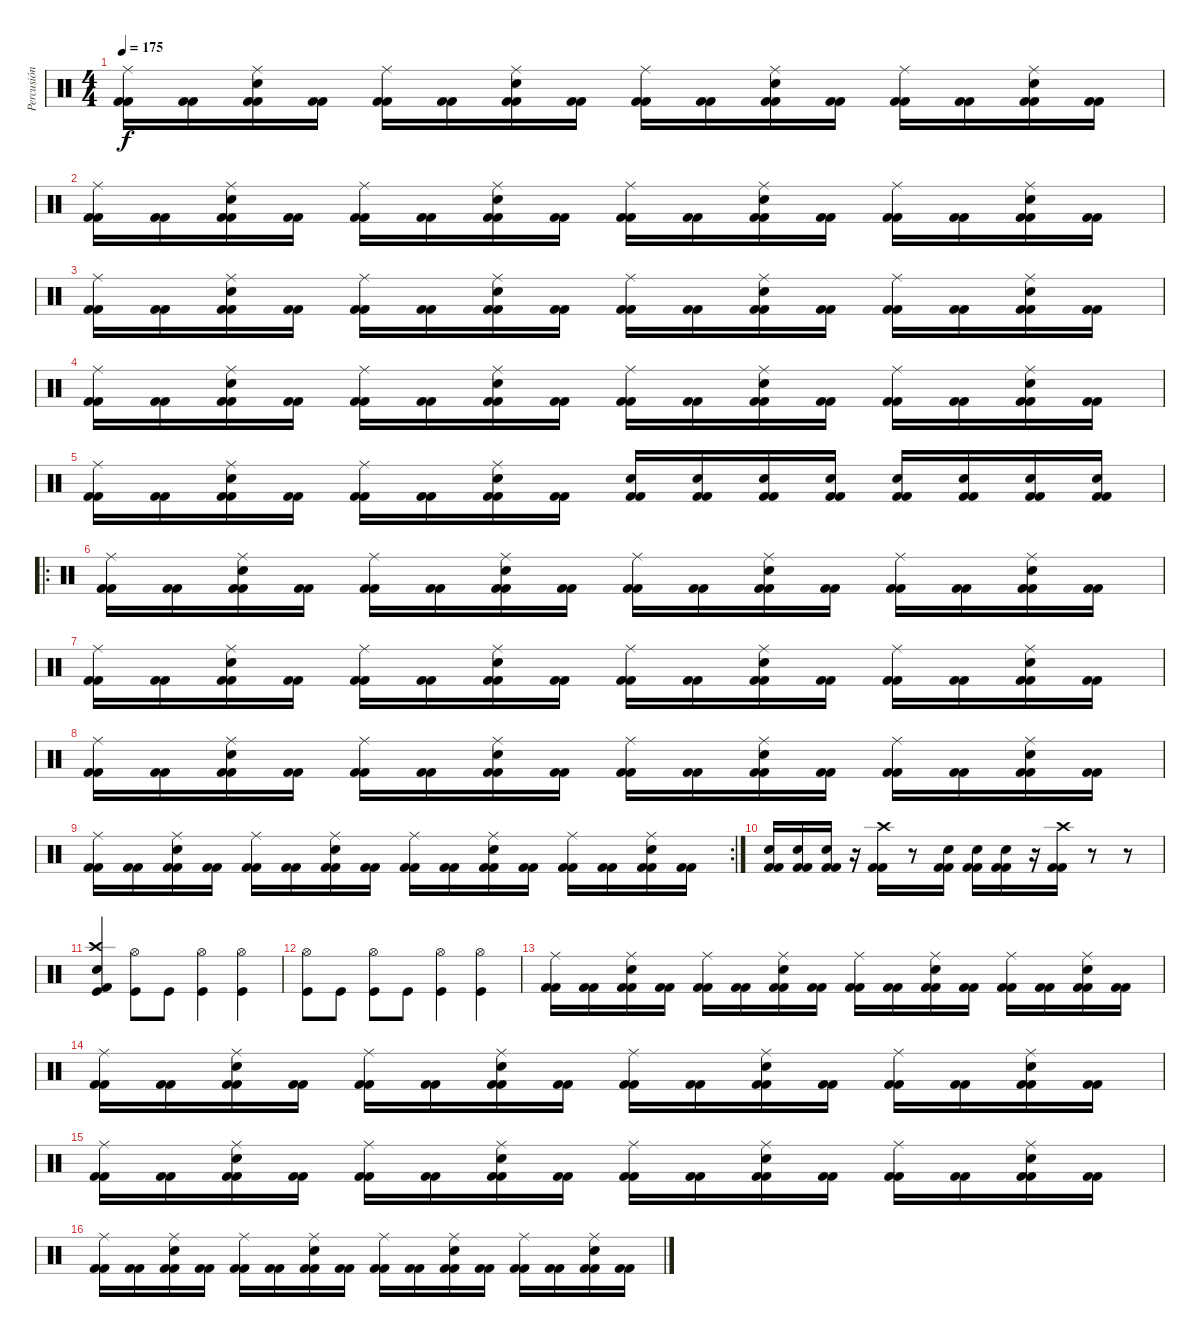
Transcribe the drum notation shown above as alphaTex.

\track ("Percusión" "Percusión") {instrument percussion}
\staff {score}
\articulation defaults
\ts (4 4)
\tempo 175
\clef neutral
\ks c
("Kick (hit) 2" "Kick (hit) 2" "Ride (middle)").16{dy f} ("Kick (hit) 2" "Kick (hit) 2").16 ("Kick (hit) 2" "Kick (hit) 2" "Electric Snare (hit)" "Ride (middle)").16 ("Kick (hit) 2" "Kick (hit) 2").16 ("Kick (hit) 2" "Kick (hit) 2" "Ride (middle)").16 ("Kick (hit) 2" "Kick (hit) 2").16 ("Kick (hit) 2" "Kick (hit) 2" "Electric Snare (hit)" "Ride (middle)").16 ("Kick (hit) 2" "Kick (hit) 2").16 ("Kick (hit) 2" "Kick (hit) 2" "Ride (middle)").16 ("Kick (hit) 2" "Kick (hit) 2").16 ("Kick (hit) 2" "Kick (hit) 2" "Electric Snare (hit)" "Ride (middle)").16 ("Kick (hit) 2" "Kick (hit) 2").16 ("Kick (hit) 2" "Kick (hit) 2" "Ride (middle)").16 ("Kick (hit) 2" "Kick (hit) 2").16 ("Kick (hit) 2" "Kick (hit) 2" "Electric Snare (hit)" "Ride (middle)").16 ("Kick (hit) 2" "Kick (hit) 2").16 |
("Kick (hit) 2" "Kick (hit) 2" "Ride (middle)").16 ("Kick (hit) 2" "Kick (hit) 2").16 ("Kick (hit) 2" "Kick (hit) 2" "Electric Snare (hit)" "Ride (middle)").16 ("Kick (hit) 2" "Kick (hit) 2").16 ("Kick (hit) 2" "Kick (hit) 2" "Ride (middle)").16 ("Kick (hit) 2" "Kick (hit) 2").16 ("Kick (hit) 2" "Kick (hit) 2" "Electric Snare (hit)" "Ride (middle)").16 ("Kick (hit) 2" "Kick (hit) 2").16 ("Kick (hit) 2" "Kick (hit) 2" "Ride (middle)").16 ("Kick (hit) 2" "Kick (hit) 2").16 ("Kick (hit) 2" "Kick (hit) 2" "Electric Snare (hit)" "Ride (middle)").16 ("Kick (hit) 2" "Kick (hit) 2").16 ("Kick (hit) 2" "Kick (hit) 2" "Ride (middle)").16 ("Kick (hit) 2" "Kick (hit) 2").16 ("Kick (hit) 2" "Kick (hit) 2" "Electric Snare (hit)" "Ride (middle)").16 ("Kick (hit) 2" "Kick (hit) 2").16 |
("Kick (hit) 2" "Kick (hit) 2" "Ride (middle)").16 ("Kick (hit) 2" "Kick (hit) 2").16 ("Kick (hit) 2" "Kick (hit) 2" "Electric Snare (hit)" "Ride (middle)").16 ("Kick (hit) 2" "Kick (hit) 2").16 ("Kick (hit) 2" "Kick (hit) 2" "Ride (middle)").16 ("Kick (hit) 2" "Kick (hit) 2").16 ("Kick (hit) 2" "Kick (hit) 2" "Electric Snare (hit)" "Ride (middle)").16 ("Kick (hit) 2" "Kick (hit) 2").16 ("Kick (hit) 2" "Kick (hit) 2" "Ride (middle)").16 ("Kick (hit) 2" "Kick (hit) 2").16 ("Kick (hit) 2" "Kick (hit) 2" "Electric Snare (hit)" "Ride (middle)").16 ("Kick (hit) 2" "Kick (hit) 2").16 ("Kick (hit) 2" "Kick (hit) 2" "Ride (middle)").16 ("Kick (hit) 2" "Kick (hit) 2").16 ("Kick (hit) 2" "Kick (hit) 2" "Electric Snare (hit)" "Ride (middle)").16 ("Kick (hit) 2" "Kick (hit) 2").16 |
("Kick (hit) 2" "Kick (hit) 2" "Ride (middle)").16 ("Kick (hit) 2" "Kick (hit) 2").16 ("Kick (hit) 2" "Kick (hit) 2" "Electric Snare (hit)" "Ride (middle)").16 ("Kick (hit) 2" "Kick (hit) 2").16 ("Kick (hit) 2" "Kick (hit) 2" "Ride (middle)").16 ("Kick (hit) 2" "Kick (hit) 2").16 ("Kick (hit) 2" "Kick (hit) 2" "Electric Snare (hit)" "Ride (middle)").16 ("Kick (hit) 2" "Kick (hit) 2").16 ("Kick (hit) 2" "Kick (hit) 2" "Ride (middle)").16 ("Kick (hit) 2" "Kick (hit) 2").16 ("Kick (hit) 2" "Kick (hit) 2" "Electric Snare (hit)" "Ride (middle)").16 ("Kick (hit) 2" "Kick (hit) 2").16 ("Kick (hit) 2" "Kick (hit) 2" "Ride (middle)").16 ("Kick (hit) 2" "Kick (hit) 2").16 ("Kick (hit) 2" "Kick (hit) 2" "Electric Snare (hit)" "Ride (middle)").16 ("Kick (hit) 2" "Kick (hit) 2").16 |
("Kick (hit) 2" "Kick (hit) 2" "Ride (middle)").16 ("Kick (hit) 2" "Kick (hit) 2").16 ("Kick (hit) 2" "Kick (hit) 2" "Electric Snare (hit)" "Ride (middle)").16 ("Kick (hit) 2" "Kick (hit) 2").16 ("Kick (hit) 2" "Kick (hit) 2" "Ride (middle)").16 ("Kick (hit) 2" "Kick (hit) 2").16 ("Kick (hit) 2" "Kick (hit) 2" "Electric Snare (hit)" "Ride (middle)").16 ("Kick (hit) 2" "Kick (hit) 2").16 ("Kick (hit) 2" "Kick (hit) 2" "Electric Snare (hit)").16 ("Kick (hit) 2" "Kick (hit) 2" "Electric Snare (hit)").16 ("Kick (hit) 2" "Kick (hit) 2" "Electric Snare (hit)").16 ("Kick (hit) 2" "Kick (hit) 2" "Electric Snare (hit)").16 ("Kick (hit) 2" "Kick (hit) 2" "Electric Snare (hit)").16 ("Kick (hit) 2" "Kick (hit) 2" "Electric Snare (hit)").16 ("Kick (hit) 2" "Kick (hit) 2" "Electric Snare (hit)").16 ("Kick (hit) 2" "Kick (hit) 2" "Electric Snare (hit)").16 |
\ro
("Kick (hit) 2" "Kick (hit) 2" "Ride (middle)").16 ("Kick (hit) 2" "Kick (hit) 2").16 ("Kick (hit) 2" "Kick (hit) 2" "Electric Snare (hit)" "Ride (middle)").16 ("Kick (hit) 2" "Kick (hit) 2").16 ("Kick (hit) 2" "Kick (hit) 2" "Ride (middle)").16 ("Kick (hit) 2" "Kick (hit) 2").16 ("Kick (hit) 2" "Kick (hit) 2" "Electric Snare (hit)" "Ride (middle)").16 ("Kick (hit) 2" "Kick (hit) 2").16 ("Kick (hit) 2" "Kick (hit) 2" "Ride (middle)").16 ("Kick (hit) 2" "Kick (hit) 2").16 ("Kick (hit) 2" "Kick (hit) 2" "Electric Snare (hit)" "Ride (middle)").16 ("Kick (hit) 2" "Kick (hit) 2").16 ("Kick (hit) 2" "Kick (hit) 2" "Ride (middle)").16 ("Kick (hit) 2" "Kick (hit) 2").16 ("Kick (hit) 2" "Kick (hit) 2" "Electric Snare (hit)" "Ride (middle)").16 ("Kick (hit) 2" "Kick (hit) 2").16 |
("Kick (hit) 2" "Kick (hit) 2" "Ride (middle)").16 ("Kick (hit) 2" "Kick (hit) 2").16 ("Kick (hit) 2" "Kick (hit) 2" "Electric Snare (hit)" "Ride (middle)").16 ("Kick (hit) 2" "Kick (hit) 2").16 ("Kick (hit) 2" "Kick (hit) 2" "Ride (middle)").16 ("Kick (hit) 2" "Kick (hit) 2").16 ("Kick (hit) 2" "Kick (hit) 2" "Electric Snare (hit)" "Ride (middle)").16 ("Kick (hit) 2" "Kick (hit) 2").16 ("Kick (hit) 2" "Kick (hit) 2" "Ride (middle)").16 ("Kick (hit) 2" "Kick (hit) 2").16 ("Kick (hit) 2" "Kick (hit) 2" "Electric Snare (hit)" "Ride (middle)").16 ("Kick (hit) 2" "Kick (hit) 2").16 ("Kick (hit) 2" "Kick (hit) 2" "Ride (middle)").16 ("Kick (hit) 2" "Kick (hit) 2").16 ("Kick (hit) 2" "Kick (hit) 2" "Electric Snare (hit)" "Ride (middle)").16 ("Kick (hit) 2" "Kick (hit) 2").16 |
("Kick (hit) 2" "Kick (hit) 2" "Ride (middle)").16 ("Kick (hit) 2" "Kick (hit) 2").16 ("Kick (hit) 2" "Kick (hit) 2" "Electric Snare (hit)" "Ride (middle)").16 ("Kick (hit) 2" "Kick (hit) 2").16 ("Kick (hit) 2" "Kick (hit) 2" "Ride (middle)").16 ("Kick (hit) 2" "Kick (hit) 2").16 ("Kick (hit) 2" "Kick (hit) 2" "Electric Snare (hit)" "Ride (middle)").16 ("Kick (hit) 2" "Kick (hit) 2").16 ("Kick (hit) 2" "Kick (hit) 2" "Ride (middle)").16 ("Kick (hit) 2" "Kick (hit) 2").16 ("Kick (hit) 2" "Kick (hit) 2" "Electric Snare (hit)" "Ride (middle)").16 ("Kick (hit) 2" "Kick (hit) 2").16 ("Kick (hit) 2" "Kick (hit) 2" "Ride (middle)").16 ("Kick (hit) 2" "Kick (hit) 2").16 ("Kick (hit) 2" "Kick (hit) 2" "Electric Snare (hit)" "Ride (middle)").16 ("Kick (hit) 2" "Kick (hit) 2").16 |
\rc 2
("Kick (hit) 2" "Kick (hit) 2" "Ride (middle)").16 ("Kick (hit) 2" "Kick (hit) 2").16 ("Kick (hit) 2" "Kick (hit) 2" "Electric Snare (hit)" "Ride (middle)").16 ("Kick (hit) 2" "Kick (hit) 2").16 ("Kick (hit) 2" "Kick (hit) 2" "Ride (middle)").16 ("Kick (hit) 2" "Kick (hit) 2").16 ("Kick (hit) 2" "Kick (hit) 2" "Electric Snare (hit)" "Ride (middle)").16 ("Kick (hit) 2" "Kick (hit) 2").16 ("Kick (hit) 2" "Kick (hit) 2" "Ride (middle)").16 ("Kick (hit) 2" "Kick (hit) 2").16 ("Kick (hit) 2" "Kick (hit) 2" "Electric Snare (hit)" "Ride (middle)").16 ("Kick (hit) 2" "Kick (hit) 2").16 ("Kick (hit) 2" "Kick (hit) 2" "Ride (middle)").16 ("Kick (hit) 2" "Kick (hit) 2").16 ("Kick (hit) 2" "Kick (hit) 2" "Electric Snare (hit)" "Ride (middle)").16 ("Kick (hit) 2" "Kick (hit) 2").16 |
("Kick (hit) 2" "Kick (hit) 2" "Electric Snare (hit)").16 ("Kick (hit) 2" "Kick (hit) 2" "Electric Snare (hit)").16 ("Kick (hit) 2" "Kick (hit) 2" "Electric Snare (hit)").16 r.16 ("Kick (hit) 2" "Kick (hit) 2" "Crash high (hit)").16 r.8 ("Kick (hit) 2" "Kick (hit) 2" "Electric Snare (hit)").16 ("Kick (hit) 2" "Kick (hit) 2" "Electric Snare (hit)").16 ("Kick (hit) 2" "Kick (hit) 2" "Electric Snare (hit)").16 r.16 ("Kick (hit) 2" "Kick (hit) 2" "Crash high (hit)").16 r.8 r.8 |
("Kick (hit) 2" "Kick (hit)" "Electric Snare (hit)" "Crash high (hit)").4 ("Hi-Hat (open)" "Kick (hit)").8 "Kick (hit)".8 ("Hi-Hat (open)" "Kick (hit)").4 ("Hi-Hat (open)" "Kick (hit)").4 |
("Hi-Hat (open)" "Kick (hit)").8 "Kick (hit)".8 ("Hi-Hat (open)" "Kick (hit)").8 "Kick (hit)".8 ("Hi-Hat (open)" "Kick (hit)").4 ("Hi-Hat (open)" "Kick (hit)").4 |
("Kick (hit) 2" "Kick (hit) 2" "Ride (middle)").16 ("Kick (hit) 2" "Kick (hit) 2").16 ("Kick (hit) 2" "Kick (hit) 2" "Electric Snare (hit)" "Ride (middle)").16 ("Kick (hit) 2" "Kick (hit) 2").16 ("Kick (hit) 2" "Kick (hit) 2" "Ride (middle)").16 ("Kick (hit) 2" "Kick (hit) 2").16 ("Kick (hit) 2" "Kick (hit) 2" "Electric Snare (hit)" "Ride (middle)").16 ("Kick (hit) 2" "Kick (hit) 2").16 ("Kick (hit) 2" "Kick (hit) 2" "Ride (middle)").16 ("Kick (hit) 2" "Kick (hit) 2").16 ("Kick (hit) 2" "Kick (hit) 2" "Electric Snare (hit)" "Ride (middle)").16 ("Kick (hit) 2" "Kick (hit) 2").16 ("Kick (hit) 2" "Kick (hit) 2" "Ride (middle)").16 ("Kick (hit) 2" "Kick (hit) 2").16 ("Kick (hit) 2" "Kick (hit) 2" "Electric Snare (hit)" "Ride (middle)").16 ("Kick (hit) 2" "Kick (hit) 2").16 |
("Kick (hit) 2" "Kick (hit) 2" "Ride (middle)").16 ("Kick (hit) 2" "Kick (hit) 2").16 ("Kick (hit) 2" "Kick (hit) 2" "Electric Snare (hit)" "Ride (middle)").16 ("Kick (hit) 2" "Kick (hit) 2").16 ("Kick (hit) 2" "Kick (hit) 2" "Ride (middle)").16 ("Kick (hit) 2" "Kick (hit) 2").16 ("Kick (hit) 2" "Kick (hit) 2" "Electric Snare (hit)" "Ride (middle)").16 ("Kick (hit) 2" "Kick (hit) 2").16 ("Kick (hit) 2" "Kick (hit) 2" "Ride (middle)").16 ("Kick (hit) 2" "Kick (hit) 2").16 ("Kick (hit) 2" "Kick (hit) 2" "Electric Snare (hit)" "Ride (middle)").16 ("Kick (hit) 2" "Kick (hit) 2").16 ("Kick (hit) 2" "Kick (hit) 2" "Ride (middle)").16 ("Kick (hit) 2" "Kick (hit) 2").16 ("Kick (hit) 2" "Kick (hit) 2" "Electric Snare (hit)" "Ride (middle)").16 ("Kick (hit) 2" "Kick (hit) 2").16 |
("Kick (hit) 2" "Kick (hit) 2" "Ride (middle)").16 ("Kick (hit) 2" "Kick (hit) 2").16 ("Kick (hit) 2" "Kick (hit) 2" "Electric Snare (hit)" "Ride (middle)").16 ("Kick (hit) 2" "Kick (hit) 2").16 ("Kick (hit) 2" "Kick (hit) 2" "Ride (middle)").16 ("Kick (hit) 2" "Kick (hit) 2").16 ("Kick (hit) 2" "Kick (hit) 2" "Electric Snare (hit)" "Ride (middle)").16 ("Kick (hit) 2" "Kick (hit) 2").16 ("Kick (hit) 2" "Kick (hit) 2" "Ride (middle)").16 ("Kick (hit) 2" "Kick (hit) 2").16 ("Kick (hit) 2" "Kick (hit) 2" "Electric Snare (hit)" "Ride (middle)").16 ("Kick (hit) 2" "Kick (hit) 2").16 ("Kick (hit) 2" "Kick (hit) 2" "Ride (middle)").16 ("Kick (hit) 2" "Kick (hit) 2").16 ("Kick (hit) 2" "Kick (hit) 2" "Electric Snare (hit)" "Ride (middle)").16 ("Kick (hit) 2" "Kick (hit) 2").16 |
("Kick (hit) 2" "Kick (hit) 2" "Ride (middle)").16 ("Kick (hit) 2" "Kick (hit) 2").16 ("Kick (hit) 2" "Kick (hit) 2" "Electric Snare (hit)" "Ride (middle)").16 ("Kick (hit) 2" "Kick (hit) 2").16 ("Kick (hit) 2" "Kick (hit) 2" "Ride (middle)").16 ("Kick (hit) 2" "Kick (hit) 2").16 ("Kick (hit) 2" "Kick (hit) 2" "Electric Snare (hit)" "Ride (middle)").16 ("Kick (hit) 2" "Kick (hit) 2").16 ("Kick (hit) 2" "Kick (hit) 2" "Ride (middle)").16 ("Kick (hit) 2" "Kick (hit) 2").16 ("Kick (hit) 2" "Kick (hit) 2" "Electric Snare (hit)" "Ride (middle)").16 ("Kick (hit) 2" "Kick (hit) 2").16 ("Kick (hit) 2" "Kick (hit) 2" "Ride (middle)").16 ("Kick (hit) 2" "Kick (hit) 2").16 ("Kick (hit) 2" "Kick (hit) 2" "Electric Snare (hit)" "Ride (middle)").16 ("Kick (hit) 2" "Kick (hit) 2").16
